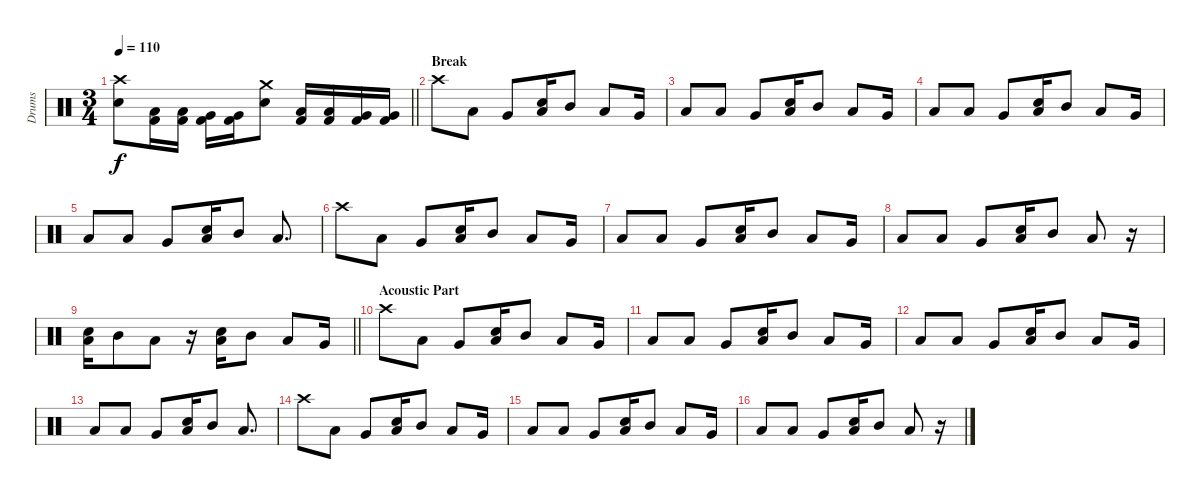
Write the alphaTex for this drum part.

\track ("Drums" "Drums") {instrument percussion}
\staff {score}
\articulation defaults
\ts (3 4)
\tempo 110
\clef neutral
\barLineRight lightlight
\ks c
("Crash high (hit)" "Snare (hit) 2").8{dy f} ("Low Tom (hit)" "Kick (hit) 2").16 ("Low Tom (hit)" "Kick (hit) 2").16 ("Very Low Tom (hit)" "Kick (hit) 2").16 ("Very Low Tom (hit)" "Kick (hit) 2").16 ("Crash medium (hit)" "Snare (hit) 2").8 ("Low Tom (hit)" "Kick (hit) 2").16 ("Low Tom (hit)" "Kick (hit) 2").16 ("Very Low Tom (hit)" "Kick (hit) 2").16 ("Very Low Tom (hit)" "Kick (hit) 2").16 |
\section ("" "Break")
"Crash high (hit)".8 "Low Tom (hit)".8 "Very Low Tom (hit)".8 ("Low Floor Tom (hit)" "Snare (hit) 2").16 "Mid Tom (hit)".8 "Low Tom (hit)".8 "Very Low Tom (hit)".16 |
"Low Floor Tom (hit)".8 "Low Tom (hit)".8 "Very Low Tom (hit)".8 ("Low Floor Tom (hit)" "Snare (hit) 2").16 "Mid Tom (hit)".8 "Low Tom (hit)".8 "Very Low Tom (hit)".16 |
"Low Floor Tom (hit)".8 "Low Tom (hit)".8 "Very Low Tom (hit)".8 ("Low Floor Tom (hit)" "Snare (hit) 2").16 "Mid Tom (hit)".8 "Low Tom (hit)".8 "Very Low Tom (hit)".16 |
"Low Floor Tom (hit)".8 "Low Tom (hit)".8 "Very Low Tom (hit)".8 ("Low Floor Tom (hit)" "Snare (hit) 2").16 "Mid Tom (hit)".8 "Low Tom (hit)".8{d} |
"Crash high (hit)".8 "Low Tom (hit)".8 "Very Low Tom (hit)".8 ("Low Floor Tom (hit)" "Snare (hit) 2").16 "Mid Tom (hit)".8 "Low Tom (hit)".8 "Very Low Tom (hit)".16 |
"Low Floor Tom (hit)".8 "Low Tom (hit)".8 "Very Low Tom (hit)".8 ("Low Floor Tom (hit)" "Snare (hit) 2").16 "Mid Tom (hit)".8 "Low Tom (hit)".8 "Very Low Tom (hit)".16 |
"Low Floor Tom (hit)".8 "Low Tom (hit)".8 "Very Low Tom (hit)".8 ("Low Floor Tom (hit)" "Snare (hit) 2").16 "Mid Tom (hit)".8 "Low Tom (hit)".8 r.16 |
\barLineRight lightlight
("Low Floor Tom (hit)" "Snare (hit) 2").16 "Mid Tom (hit)".8 "Low Tom (hit)".8 r.16 ("Low Floor Tom (hit)" "Snare (hit) 2").16 "Mid Tom (hit)".8 "Low Tom (hit)".8 "Very Low Tom (hit)".16 |
\section ("" "Acoustic Part")
"Crash high (hit)".8 "Low Tom (hit)".8 "Very Low Tom (hit)".8 ("Low Floor Tom (hit)" "Snare (hit) 2").16 "Mid Tom (hit)".8 "Low Tom (hit)".8 "Very Low Tom (hit)".16 |
"Low Floor Tom (hit)".8 "Low Tom (hit)".8 "Very Low Tom (hit)".8 ("Low Floor Tom (hit)" "Snare (hit) 2").16 "Mid Tom (hit)".8 "Low Tom (hit)".8 "Very Low Tom (hit)".16 |
"Low Floor Tom (hit)".8 "Low Tom (hit)".8 "Very Low Tom (hit)".8 ("Low Floor Tom (hit)" "Snare (hit) 2").16 "Mid Tom (hit)".8 "Low Tom (hit)".8 "Very Low Tom (hit)".16 |
"Low Floor Tom (hit)".8 "Low Tom (hit)".8 "Very Low Tom (hit)".8 ("Low Floor Tom (hit)" "Snare (hit) 2").16 "Mid Tom (hit)".8 "Low Tom (hit)".8{d} |
"Crash high (hit)".8 "Low Tom (hit)".8 "Very Low Tom (hit)".8 ("Low Floor Tom (hit)" "Snare (hit) 2").16 "Mid Tom (hit)".8 "Low Tom (hit)".8 "Very Low Tom (hit)".16 |
"Low Floor Tom (hit)".8 "Low Tom (hit)".8 "Very Low Tom (hit)".8 ("Low Floor Tom (hit)" "Snare (hit) 2").16 "Mid Tom (hit)".8 "Low Tom (hit)".8 "Very Low Tom (hit)".16 |
"Low Floor Tom (hit)".8 "Low Tom (hit)".8 "Very Low Tom (hit)".8 ("Low Floor Tom (hit)" "Snare (hit) 2").16 "Mid Tom (hit)".8 "Low Tom (hit)".8 r.16
